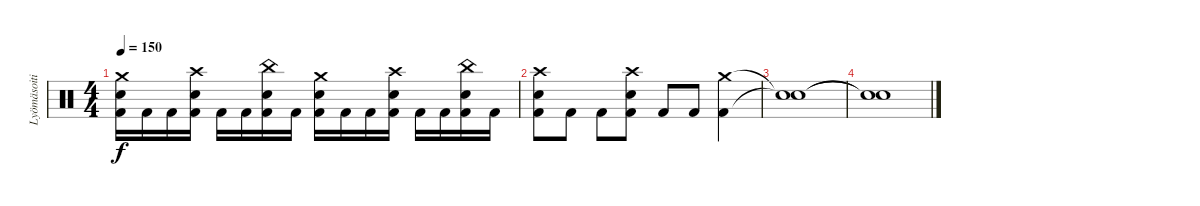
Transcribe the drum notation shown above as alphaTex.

\track ("Lyömäsoitin" "Lyömäsoiti") {instrument percussion}
\staff {score}
\articulation defaults
\ts (4 4)
\tempo 150
\clef neutral
\ks c
("Electric Snare (hit)" "Kick (hit) 2" "Crash medium (hit)").16{dy f} "Kick (hit) 2".16 "Kick (hit) 2".16 ("Electric Snare (hit)" "Kick (hit) 2" "Crash high (hit)").16 "Kick (hit) 2".16 "Kick (hit) 2".16 ("Electric Snare (hit)" "Kick (hit) 2" "China (hit)").16 "Kick (hit) 2".16 ("Electric Snare (hit)" "Kick (hit) 2" "Crash medium (hit)").16 "Kick (hit) 2".16 "Kick (hit) 2".16 ("Electric Snare (hit)" "Kick (hit) 2" "Crash high (hit)").16 "Kick (hit) 2".16 "Kick (hit) 2".16 ("Electric Snare (hit)" "Kick (hit) 2" "China (hit)").16 "Kick (hit) 2".16 |
("Electric Snare (hit)" "Kick (hit) 2" "Crash high (hit)").8 "Kick (hit) 2".8 "Kick (hit) 2".8 ("Electric Snare (hit)" "Kick (hit) 2" "Crash high (hit)").8 "Kick (hit) 2".8 "Kick (hit) 2".8 ("Kick (hit) 2" "Crash medium (hit)").4 |
("Snare (hit)"{t} "Snare (hit)"{t}).1 |
("Snare (hit)"{t} "Snare (hit)"{t}).1
